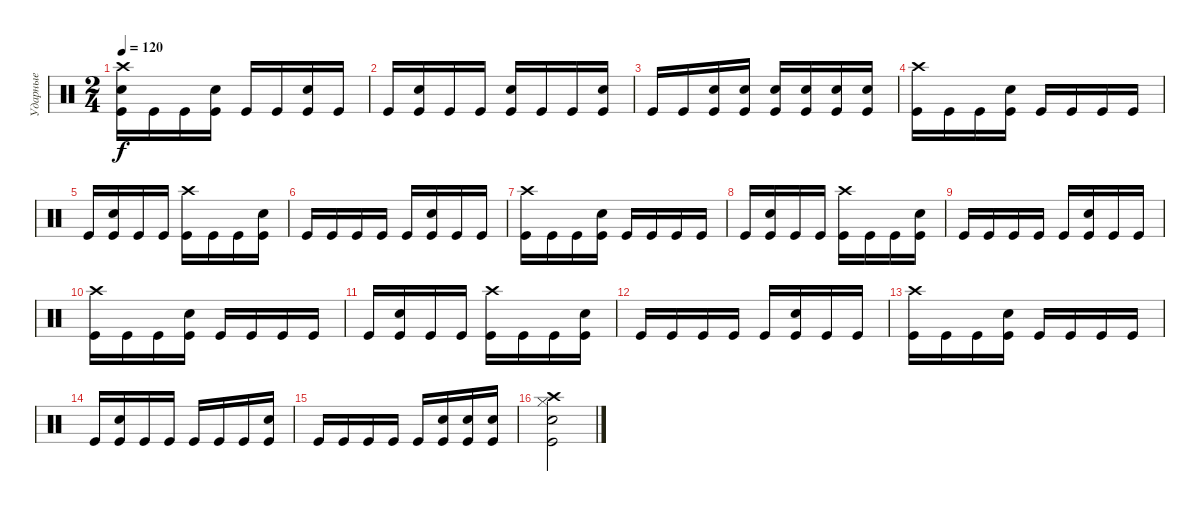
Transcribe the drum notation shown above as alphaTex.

\track ("Ударные" "Ударные") {instrument percussion}
\staff {score}
\articulation defaults
\ts (2 4)
\tempo 120
\clef neutral
\ks c
("Crash high (hit)" "Electric Snare (hit)" "Kick (hit)").16{dy f} "Kick (hit)".16 "Kick (hit)".16 ("Electric Snare (hit)" "Kick (hit)").16 "Kick (hit)".16 "Kick (hit)".16 ("Electric Snare (hit)" "Kick (hit)").16 "Kick (hit)".16 |
"Kick (hit)".16 ("Electric Snare (hit)" "Kick (hit)").16 "Kick (hit)".16 "Kick (hit)".16 ("Electric Snare (hit)" "Kick (hit)").16 "Kick (hit)".16 "Kick (hit)".16 ("Electric Snare (hit)" "Kick (hit)").16 |
"Kick (hit)".16 "Kick (hit)".16 ("Electric Snare (hit)" "Kick (hit)").16 ("Electric Snare (hit)" "Kick (hit)").16 ("Electric Snare (hit)" "Kick (hit)").16 ("Electric Snare (hit)" "Kick (hit)").16 ("Electric Snare (hit)" "Kick (hit)").16 ("Electric Snare (hit)" "Kick (hit)").16 |
("Crash high (hit)" "Kick (hit)").16 "Kick (hit)".16 "Kick (hit)".16 ("Electric Snare (hit)" "Kick (hit)").16 "Kick (hit)".16 "Kick (hit)".16 "Kick (hit)".16 "Kick (hit)".16 |
"Kick (hit)".16 ("Electric Snare (hit)" "Kick (hit)").16 "Kick (hit)".16 "Kick (hit)".16 ("Crash high (hit)" "Kick (hit)").16 "Kick (hit)".16 "Kick (hit)".16 ("Electric Snare (hit)" "Kick (hit)").16 |
"Kick (hit)".16 "Kick (hit)".16 "Kick (hit)".16 "Kick (hit)".16 "Kick (hit)".16 ("Electric Snare (hit)" "Kick (hit)").16 "Kick (hit)".16 "Kick (hit)".16 |
("Crash high (hit)" "Kick (hit)").16 "Kick (hit)".16 "Kick (hit)".16 ("Electric Snare (hit)" "Kick (hit)").16 "Kick (hit)".16 "Kick (hit)".16 "Kick (hit)".16 "Kick (hit)".16 |
"Kick (hit)".16 ("Electric Snare (hit)" "Kick (hit)").16 "Kick (hit)".16 "Kick (hit)".16 ("Crash high (hit)" "Kick (hit)").16 "Kick (hit)".16 "Kick (hit)".16 ("Electric Snare (hit)" "Kick (hit)").16 |
"Kick (hit)".16 "Kick (hit)".16 "Kick (hit)".16 "Kick (hit)".16 "Kick (hit)".16 ("Electric Snare (hit)" "Kick (hit)").16 "Kick (hit)".16 "Kick (hit)".16 |
("Crash high (hit)" "Kick (hit)").16 "Kick (hit)".16 "Kick (hit)".16 ("Electric Snare (hit)" "Kick (hit)").16 "Kick (hit)".16 "Kick (hit)".16 "Kick (hit)".16 "Kick (hit)".16 |
"Kick (hit)".16 ("Electric Snare (hit)" "Kick (hit)").16 "Kick (hit)".16 "Kick (hit)".16 ("Crash high (hit)" "Kick (hit)").16 "Kick (hit)".16 "Kick (hit)".16 ("Electric Snare (hit)" "Kick (hit)").16 |
"Kick (hit)".16 "Kick (hit)".16 "Kick (hit)".16 "Kick (hit)".16 "Kick (hit)".16 ("Electric Snare (hit)" "Kick (hit)").16 "Kick (hit)".16 "Kick (hit)".16 |
("Crash high (hit)" "Kick (hit)").16 "Kick (hit)".16 "Kick (hit)".16 ("Electric Snare (hit)" "Kick (hit)").16 "Kick (hit)".16 "Kick (hit)".16 "Kick (hit)".16 "Kick (hit)".16 |
"Kick (hit)".16 ("Electric Snare (hit)" "Kick (hit)").16 "Kick (hit)".16 "Kick (hit)".16 "Kick (hit)".16 "Kick (hit)".16 "Kick (hit)".16 ("Electric Snare (hit)" "Kick (hit)").16 |
"Kick (hit)".16 "Kick (hit)".16 "Kick (hit)".16 "Kick (hit)".16 "Kick (hit)".16 ("Electric Snare (hit)" "Kick (hit)").16 ("Electric Snare (hit)" "Kick (hit)").16 ("Electric Snare (hit)" "Kick (hit)").16 |
("Hi-Hat (closed)" "Crash high (hit)" "Electric Snare (hit)" "Kick (hit)").2
